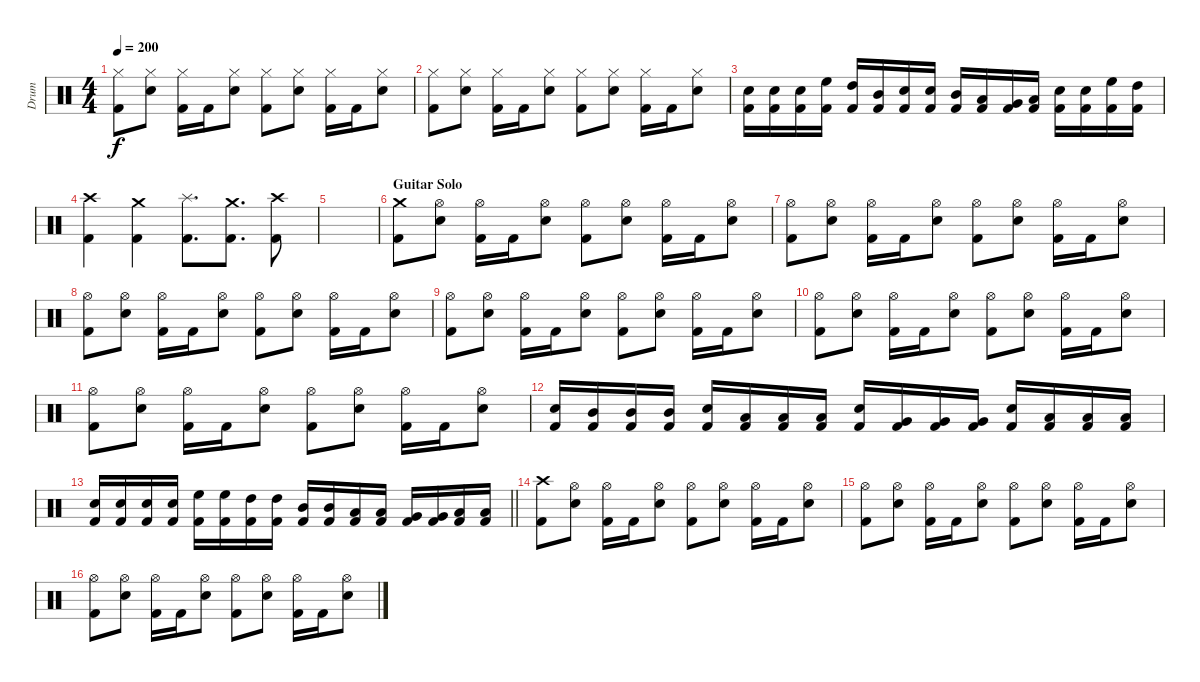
\track ("Drum" "Drum") {instrument percussion}
\staff {score}
\articulation defaults
\ts (4 4)
\tempo 200
\clef neutral
\ks c
("Kick (hit) 2" "Hi-Hat (closed)").8{dy f} ("Snare (hit) 2" "Hi-Hat (closed)").8 ("Kick (hit) 2" "Hi-Hat (closed)").16 "Kick (hit) 2".16 ("Snare (hit) 2" "Hi-Hat (closed)").8 ("Kick (hit) 2" "Hi-Hat (closed)").8 ("Snare (hit) 2" "Hi-Hat (closed)").8 ("Kick (hit) 2" "Hi-Hat (closed)").16 "Kick (hit) 2".16 ("Snare (hit) 2" "Hi-Hat (closed)").8 |
("Kick (hit) 2" "Hi-Hat (closed)").8 ("Snare (hit) 2" "Hi-Hat (closed)").8 ("Kick (hit) 2" "Hi-Hat (closed)").16 "Kick (hit) 2".16 ("Snare (hit) 2" "Hi-Hat (closed)").8 ("Kick (hit) 2" "Hi-Hat (closed)").8 ("Snare (hit) 2" "Hi-Hat (closed)").8 ("Kick (hit) 2" "Hi-Hat (closed)").16 "Kick (hit) 2".16 ("Snare (hit) 2" "Hi-Hat (closed)").8 |
("Kick (hit) 2" "Snare (hit) 2").16 ("Kick (hit) 2" "Snare (hit) 2").16 ("Kick (hit) 2" "Snare (hit) 2").16 ("Kick (hit) 2" "High Floor Tom (hit)").16 ("Kick (hit) 2" "High Tom (hit)").16 ("Kick (hit) 2" "Mid Tom (hit)").16 ("Kick (hit) 2" "Snare (hit) 2").16 ("Kick (hit) 2" "Snare (hit) 2").16 ("Kick (hit) 2" "Mid Tom (hit)").16 ("Kick (hit) 2" "Low Tom (hit)").16 ("Kick (hit) 2" "Very Low Tom (hit)").16 ("Kick (hit) 2" "Low Floor Tom (hit)").16 ("Kick (hit) 2" "Snare (hit) 2").16 ("Kick (hit) 2" "Snare (hit) 2").16 ("Kick (hit) 2" "High Floor Tom (hit)").16 ("Kick (hit) 2" "High Tom (hit)").16 |
("Kick (hit) 2" "Crash high (hit)").4 ("Kick (hit) 2" "Crash medium (hit)").4 ("Kick (hit) 2" "Splash (hit)").8{d} ("Kick (hit) 2" "Crash medium (hit)").8{d} ("Kick (hit) 2" "Crash high (hit)").8 |
|
\section ("" "Guitar Solo")
("Kick (hit) 2" "Crash medium (hit)").8{volume 10} ("Snare (hit) 2" "Hi-Hat (open)").8 ("Kick (hit) 2" "Hi-Hat (open)").16 "Kick (hit) 2".16 ("Snare (hit) 2" "Hi-Hat (open)").8 ("Kick (hit) 2" "Hi-Hat (open)").8 ("Snare (hit) 2" "Hi-Hat (open)").8 ("Kick (hit) 2" "Hi-Hat (open)").16 "Kick (hit) 2".16 ("Snare (hit) 2" "Hi-Hat (open)").8 |
("Kick (hit) 2" "Hi-Hat (open)").8 ("Snare (hit) 2" "Hi-Hat (open)").8 ("Kick (hit) 2" "Hi-Hat (open)").16 "Kick (hit) 2".16 ("Snare (hit) 2" "Hi-Hat (open)").8 ("Kick (hit) 2" "Hi-Hat (open)").8 ("Snare (hit) 2" "Hi-Hat (open)").8 ("Kick (hit) 2" "Hi-Hat (open)").16 "Kick (hit) 2".16 ("Snare (hit) 2" "Hi-Hat (open)").8 |
("Kick (hit) 2" "Hi-Hat (open)").8 ("Snare (hit) 2" "Hi-Hat (open)").8 ("Kick (hit) 2" "Hi-Hat (open)").16 "Kick (hit) 2".16 ("Snare (hit) 2" "Hi-Hat (open)").8 ("Kick (hit) 2" "Hi-Hat (open)").8 ("Snare (hit) 2" "Hi-Hat (open)").8 ("Kick (hit) 2" "Hi-Hat (open)").16 "Kick (hit) 2".16 ("Snare (hit) 2" "Hi-Hat (open)").8 |
("Kick (hit) 2" "Hi-Hat (open)").8 ("Snare (hit) 2" "Hi-Hat (open)").8 ("Kick (hit) 2" "Hi-Hat (open)").16 "Kick (hit) 2".16 ("Snare (hit) 2" "Hi-Hat (open)").8 ("Kick (hit) 2" "Hi-Hat (open)").8 ("Snare (hit) 2" "Hi-Hat (open)").8 ("Kick (hit) 2" "Hi-Hat (open)").16 "Kick (hit) 2".16 ("Snare (hit) 2" "Hi-Hat (open)").8 |
("Kick (hit) 2" "Hi-Hat (open)").8 ("Snare (hit) 2" "Hi-Hat (open)").8 ("Kick (hit) 2" "Hi-Hat (open)").16 "Kick (hit) 2".16 ("Snare (hit) 2" "Hi-Hat (open)").8 ("Kick (hit) 2" "Hi-Hat (open)").8 ("Snare (hit) 2" "Hi-Hat (open)").8 ("Kick (hit) 2" "Hi-Hat (open)").16 "Kick (hit) 2".16 ("Snare (hit) 2" "Hi-Hat (open)").8 |
("Kick (hit) 2" "Hi-Hat (open)").8 ("Snare (hit) 2" "Hi-Hat (open)").8 ("Kick (hit) 2" "Hi-Hat (open)").16 "Kick (hit) 2".16 ("Snare (hit) 2" "Hi-Hat (open)").8 ("Kick (hit) 2" "Hi-Hat (open)").8 ("Snare (hit) 2" "Hi-Hat (open)").8 ("Kick (hit) 2" "Hi-Hat (open)").16 "Kick (hit) 2".16 ("Snare (hit) 2" "Hi-Hat (open)").8 |
("Kick (hit) 2" "Snare (hit) 2").16 ("Kick (hit) 2" "Mid Tom (hit)").16 ("Kick (hit) 2" "Mid Tom (hit)").16 ("Kick (hit) 2" "Mid Tom (hit)").16 ("Kick (hit) 2" "Snare (hit) 2").16 ("Kick (hit) 2" "Low Tom (hit)").16 ("Kick (hit) 2" "Low Tom (hit)").16 ("Kick (hit) 2" "Low Tom (hit)").16 ("Kick (hit) 2" "Snare (hit) 2").16 ("Kick (hit) 2" "Very Low Tom (hit)").16 ("Kick (hit) 2" "Very Low Tom (hit)").16 ("Kick (hit) 2" "Very Low Tom (hit)").16 ("Kick (hit) 2" "Snare (hit) 2").16 ("Kick (hit) 2" "Low Floor Tom (hit)").16 ("Kick (hit) 2" "Low Floor Tom (hit)").16 ("Kick (hit) 2" "Low Floor Tom (hit)").16 |
\barLineRight lightlight
("Kick (hit) 2" "Snare (hit) 2").16 ("Kick (hit) 2" "Snare (hit) 2").16 ("Kick (hit) 2" "Snare (hit) 2").16 ("Kick (hit) 2" "Snare (hit) 2").16 ("Kick (hit) 2" "High Floor Tom (hit)").16 ("Kick (hit) 2" "High Floor Tom (hit)").16 ("Kick (hit) 2" "High Tom (hit)").16 ("Kick (hit) 2" "High Tom (hit)").16 ("Kick (hit) 2" "Mid Tom (hit)").16 ("Kick (hit) 2" "Mid Tom (hit)").16 ("Kick (hit) 2" "Low Tom (hit)").16 ("Kick (hit) 2" "Low Tom (hit)").16 ("Kick (hit) 2" "Very Low Tom (hit)").16 ("Kick (hit) 2" "Very Low Tom (hit)").16 ("Kick (hit) 2" "Low Floor Tom (hit)").16 ("Kick (hit) 2" "Low Floor Tom (hit)").16 |
("Kick (hit) 2" "Crash high (hit)").8 ("Snare (hit) 2" "Hi-Hat (open)").8 ("Kick (hit) 2" "Hi-Hat (open)").16 "Kick (hit) 2".16 ("Snare (hit) 2" "Hi-Hat (open)").8 ("Kick (hit) 2" "Hi-Hat (open)").8 ("Snare (hit) 2" "Hi-Hat (open)").8 ("Kick (hit) 2" "Hi-Hat (open)").16 "Kick (hit) 2".16 ("Snare (hit) 2" "Hi-Hat (open)").8 |
("Kick (hit) 2" "Hi-Hat (open)").8 ("Snare (hit) 2" "Hi-Hat (open)").8 ("Kick (hit) 2" "Hi-Hat (open)").16 "Kick (hit) 2".16 ("Snare (hit) 2" "Hi-Hat (open)").8 ("Kick (hit) 2" "Hi-Hat (open)").8 ("Snare (hit) 2" "Hi-Hat (open)").8 ("Kick (hit) 2" "Hi-Hat (open)").16 "Kick (hit) 2".16 ("Snare (hit) 2" "Hi-Hat (open)").8 |
("Kick (hit) 2" "Hi-Hat (open)").8 ("Snare (hit) 2" "Hi-Hat (open)").8 ("Kick (hit) 2" "Hi-Hat (open)").16 "Kick (hit) 2".16 ("Snare (hit) 2" "Hi-Hat (open)").8 ("Kick (hit) 2" "Hi-Hat (open)").8 ("Snare (hit) 2" "Hi-Hat (open)").8 ("Kick (hit) 2" "Hi-Hat (open)").16 "Kick (hit) 2".16 ("Snare (hit) 2" "Hi-Hat (open)").8
